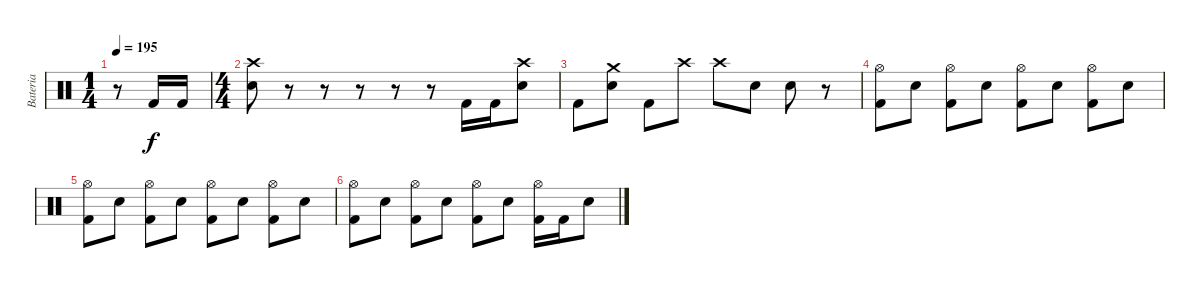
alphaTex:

\track ("Bateria" "Bateria") {instrument percussion}
\staff {score}
\articulation defaults
\ts (1 4)
\tempo 195
\clef neutral
\ks c
r.8{dy f} "Kick (hit) 2".16 "Kick (hit) 2".16 |
\ts (4 4)
("Snare (hit) 2" "Crash high (hit)").8 r.8 r.8 r.8 r.8 r.8 "Kick (hit) 2".16 "Kick (hit) 2".16 ("Snare (hit) 2" "Crash high (hit)").8 |
"Kick (hit) 2".8 ("Snare (hit) 2" "Crash medium (hit)").8 "Kick (hit) 2".8 "Crash high (hit)".8 "Crash high (hit)".8 "Snare (hit) 2".8 "Snare (hit) 2".8 r.8 |
("Hi-Hat (open)" "Kick (hit) 2").8 "Snare (hit) 2".8 ("Hi-Hat (open)" "Kick (hit) 2").8 "Snare (hit) 2".8 ("Hi-Hat (open)" "Kick (hit) 2").8 "Snare (hit) 2".8 ("Hi-Hat (open)" "Kick (hit) 2").8 "Snare (hit) 2".8 |
("Hi-Hat (open)" "Kick (hit) 2").8 "Snare (hit) 2".8 ("Hi-Hat (open)" "Kick (hit) 2").8 "Snare (hit) 2".8 ("Hi-Hat (open)" "Kick (hit) 2").8 "Snare (hit) 2".8 ("Hi-Hat (open)" "Kick (hit) 2").8 "Snare (hit) 2".8 |
("Hi-Hat (open)" "Kick (hit) 2").8 "Snare (hit) 2".8 ("Hi-Hat (open)" "Kick (hit) 2").8 "Snare (hit) 2".8 ("Hi-Hat (open)" "Kick (hit) 2").8 "Snare (hit) 2".8 ("Hi-Hat (open)" "Kick (hit) 2").16 "Kick (hit) 2".16 "Snare (hit) 2".8
